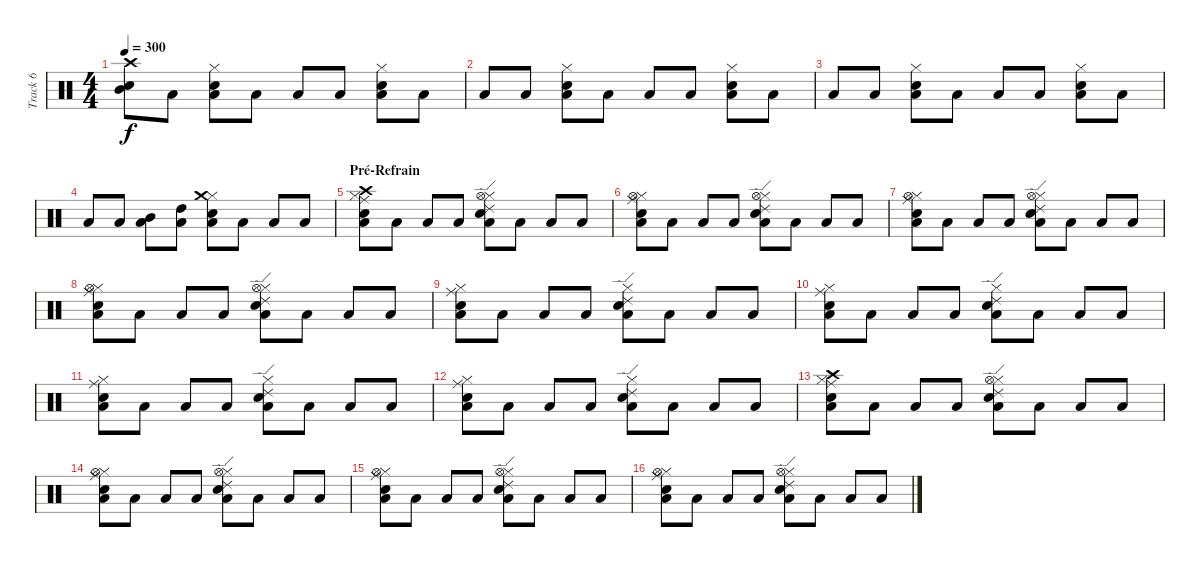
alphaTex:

\track ("Track 6" "Track 6") {instrument percussion}
\staff {score}
\articulation defaults
\ts (4 4)
\tempo 300
\clef neutral
\ks c
("Snare (hit) 2" "Mid Tom (hit)" "Crash high (hit)").8{dy f} "Low Floor Tom (hit)".8 ("Electric Snare (hit)" "Low Tom (hit)" "Hi-Hat (closed)").8 "Low Floor Tom (hit)".8 "Low Floor Tom (hit)".8 "Low Floor Tom (hit)".8 ("Electric Snare (hit)" "Low Tom (hit)" "Hi-Hat (closed)").8 "Low Floor Tom (hit)".8 |
"Low Floor Tom (hit)".8 "Low Floor Tom (hit)".8 ("Electric Snare (hit)" "Low Tom (hit)" "Hi-Hat (closed)").8 "Low Floor Tom (hit)".8 "Low Floor Tom (hit)".8 "Low Floor Tom (hit)".8 ("Electric Snare (hit)" "Low Tom (hit)" "Hi-Hat (closed)").8 "Low Floor Tom (hit)".8 |
"Low Floor Tom (hit)".8 "Low Floor Tom (hit)".8 ("Electric Snare (hit)" "Low Tom (hit)" "Hi-Hat (closed)").8 "Low Floor Tom (hit)".8 "Low Floor Tom (hit)".8 "Low Floor Tom (hit)".8 ("Electric Snare (hit)" "Low Tom (hit)" "Hi-Hat (closed)").8 "Low Floor Tom (hit)".8 |
"Low Floor Tom (hit)".8 "Low Floor Tom (hit)".8 ("Low Floor Tom (hit)" "Mid Tom (hit)").8 ("Low Floor Tom (hit)" "High Tom (hit)").8 ("Electric Snare (hit)" "Low Tom (hit)" "Hi-Hat (closed)" "Crash medium (hit)").8 "Low Floor Tom (hit)".8 "Low Floor Tom (hit)".8 "Low Floor Tom (hit)".8 |
\section ("" "Pré-Refrain")
("Snare (hit) 2" "Low Tom (hit)" "Hi-Hat (closed)" "Crash high (hit)" "Ride (middle)").8 "Low Floor Tom (hit)".8 "Low Floor Tom (hit)".8 "Low Floor Tom (hit)".8 ("Electric Snare (hit)" "Low Tom (hit)" "Hi-Hat (closed)" "Hi-Hat (open)" "Ride (edge) 2").8 "Low Floor Tom (hit)".8 "Low Floor Tom (hit)".8 "Low Floor Tom (hit)".8 |
("Snare (hit) 2" "Low Tom (hit)" "Hi-Hat (closed)" "Hi-Hat (open)" "Ride (middle)").8 "Low Floor Tom (hit)".8 "Low Floor Tom (hit)".8 "Low Floor Tom (hit)".8 ("Electric Snare (hit)" "Low Tom (hit)" "Hi-Hat (closed)" "Hi-Hat (open)" "Ride (edge) 2").8 "Low Floor Tom (hit)".8 "Low Floor Tom (hit)".8 "Low Floor Tom (hit)".8 |
("Snare (hit) 2" "Low Tom (hit)" "Hi-Hat (closed)" "Hi-Hat (open)" "Ride (middle)").8 "Low Floor Tom (hit)".8 "Low Floor Tom (hit)".8 "Low Floor Tom (hit)".8 ("Electric Snare (hit)" "Low Tom (hit)" "Hi-Hat (closed)" "Hi-Hat (open)" "Ride (edge) 2").8 "Low Floor Tom (hit)".8 "Low Floor Tom (hit)".8 "Low Floor Tom (hit)".8 |
("Snare (hit) 2" "Low Tom (hit)" "Hi-Hat (closed)" "Hi-Hat (open)" "Ride (middle)").8 "Low Floor Tom (hit)".8 "Low Floor Tom (hit)".8 "Low Floor Tom (hit)".8 ("Electric Snare (hit)" "Low Tom (hit)" "Hi-Hat (closed)" "Hi-Hat (open)" "Ride (edge) 2").8 "Low Floor Tom (hit)".8 "Low Floor Tom (hit)".8 "Low Floor Tom (hit)".8 |
("Snare (hit) 2" "Low Tom (hit)" "Hi-Hat (closed)" "Ride (middle)").8 "Low Floor Tom (hit)".8 "Low Floor Tom (hit)".8 "Low Floor Tom (hit)".8 ("Electric Snare (hit)" "Low Tom (hit)" "Hi-Hat (closed)" "Ride (edge) 2").8 "Low Floor Tom (hit)".8 "Low Floor Tom (hit)".8 "Low Floor Tom (hit)".8 |
("Snare (hit) 2" "Low Tom (hit)" "Hi-Hat (closed)" "Ride (middle)").8 "Low Floor Tom (hit)".8 "Low Floor Tom (hit)".8 "Low Floor Tom (hit)".8 ("Electric Snare (hit)" "Low Tom (hit)" "Hi-Hat (closed)" "Ride (edge) 2").8 "Low Floor Tom (hit)".8 "Low Floor Tom (hit)".8 "Low Floor Tom (hit)".8 |
("Snare (hit) 2" "Low Tom (hit)" "Hi-Hat (closed)" "Ride (middle)").8 "Low Floor Tom (hit)".8 "Low Floor Tom (hit)".8 "Low Floor Tom (hit)".8 ("Electric Snare (hit)" "Low Tom (hit)" "Hi-Hat (closed)" "Ride (edge) 2").8 "Low Floor Tom (hit)".8 "Low Floor Tom (hit)".8 "Low Floor Tom (hit)".8 |
("Snare (hit) 2" "Low Tom (hit)" "Hi-Hat (closed)" "Ride (middle)").8 "Low Floor Tom (hit)".8 "Low Floor Tom (hit)".8 "Low Floor Tom (hit)".8 ("Electric Snare (hit)" "Low Tom (hit)" "Hi-Hat (closed)" "Ride (edge) 2").8 "Low Floor Tom (hit)".8 "Low Floor Tom (hit)".8 "Low Floor Tom (hit)".8 |
("Snare (hit) 2" "Low Tom (hit)" "Hi-Hat (closed)" "Crash high (hit)" "Ride (middle)").8 "Low Floor Tom (hit)".8 "Low Floor Tom (hit)".8 "Low Floor Tom (hit)".8 ("Electric Snare (hit)" "Low Tom (hit)" "Hi-Hat (closed)" "Hi-Hat (open)" "Ride (edge) 2").8 "Low Floor Tom (hit)".8 "Low Floor Tom (hit)".8 "Low Floor Tom (hit)".8 |
("Snare (hit) 2" "Low Tom (hit)" "Hi-Hat (closed)" "Hi-Hat (open)" "Ride (middle)").8 "Low Floor Tom (hit)".8 "Low Floor Tom (hit)".8 "Low Floor Tom (hit)".8 ("Electric Snare (hit)" "Low Tom (hit)" "Hi-Hat (closed)" "Hi-Hat (open)" "Ride (edge) 2").8 "Low Floor Tom (hit)".8 "Low Floor Tom (hit)".8 "Low Floor Tom (hit)".8 |
("Snare (hit) 2" "Low Tom (hit)" "Hi-Hat (closed)" "Hi-Hat (open)" "Ride (middle)").8 "Low Floor Tom (hit)".8 "Low Floor Tom (hit)".8 "Low Floor Tom (hit)".8 ("Electric Snare (hit)" "Low Tom (hit)" "Hi-Hat (closed)" "Hi-Hat (open)" "Ride (edge) 2").8 "Low Floor Tom (hit)".8 "Low Floor Tom (hit)".8 "Low Floor Tom (hit)".8 |
("Snare (hit) 2" "Low Tom (hit)" "Hi-Hat (closed)" "Hi-Hat (open)" "Ride (middle)").8 "Low Floor Tom (hit)".8 "Low Floor Tom (hit)".8 "Low Floor Tom (hit)".8 ("Electric Snare (hit)" "Low Tom (hit)" "Hi-Hat (closed)" "Hi-Hat (open)" "Ride (edge) 2").8 "Low Floor Tom (hit)".8 "Low Floor Tom (hit)".8 "Low Floor Tom (hit)".8
